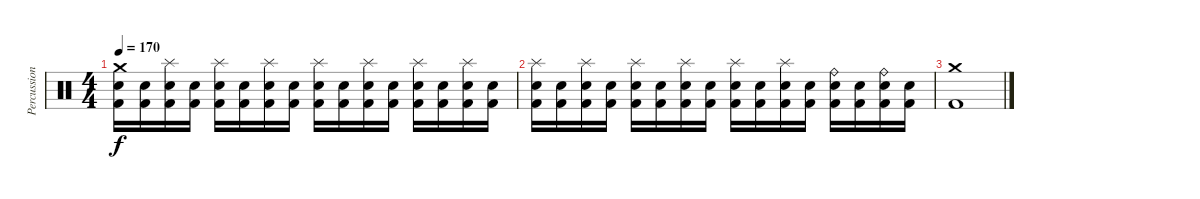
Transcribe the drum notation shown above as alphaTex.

\track ("Percussion" "Percussion") {instrument percussion}
\staff {score}
\articulation defaults
\ts (4 4)
\tempo 170
\clef neutral
\ks c
("Crash medium (hit)" "Electric Snare (hit)" "Kick (hit) 2").16{dy f} ("Electric Snare (hit)" "Kick (hit) 2").16 ("Splash (hit)" "Electric Snare (hit)" "Kick (hit) 2").16 ("Electric Snare (hit)" "Kick (hit) 2").16 ("Splash (hit)" "Electric Snare (hit)" "Kick (hit) 2").16 ("Electric Snare (hit)" "Kick (hit) 2").16 ("Splash (hit)" "Electric Snare (hit)" "Kick (hit) 2").16 ("Electric Snare (hit)" "Kick (hit) 2").16 ("Splash (hit)" "Electric Snare (hit)" "Kick (hit) 2").16 ("Electric Snare (hit)" "Kick (hit) 2").16 ("Splash (hit)" "Electric Snare (hit)" "Kick (hit) 2").16 ("Electric Snare (hit)" "Kick (hit) 2").16 ("Splash (hit)" "Electric Snare (hit)" "Kick (hit) 2").16 ("Electric Snare (hit)" "Kick (hit) 2").16 ("Splash (hit)" "Electric Snare (hit)" "Kick (hit) 2").16 ("Electric Snare (hit)" "Kick (hit) 2").16 |
("Splash (hit)" "Electric Snare (hit)" "Kick (hit) 2").16 ("Electric Snare (hit)" "Kick (hit) 2").16 ("Splash (hit)" "Electric Snare (hit)" "Kick (hit) 2").16 ("Electric Snare (hit)" "Kick (hit) 2").16 ("Splash (hit)" "Electric Snare (hit)" "Kick (hit) 2").16 ("Electric Snare (hit)" "Kick (hit) 2").16 ("Splash (hit)" "Electric Snare (hit)" "Kick (hit) 2").16 ("Electric Snare (hit)" "Kick (hit) 2").16 ("Splash (hit)" "Electric Snare (hit)" "Kick (hit) 2").16 ("Electric Snare (hit)" "Kick (hit) 2").16 ("Splash (hit)" "Electric Snare (hit)" "Kick (hit) 2").16 ("Electric Snare (hit)" "Kick (hit) 2").16 ("Ride (bell)" "Electric Snare (hit)" "Kick (hit) 2").16 ("Electric Snare (hit)" "Kick (hit) 2").16 ("Ride (bell)" "Electric Snare (hit)" "Kick (hit) 2").16 ("Electric Snare (hit)" "Kick (hit) 2").16 |
("Crash medium (hit)" "Kick (hit) 2").1
